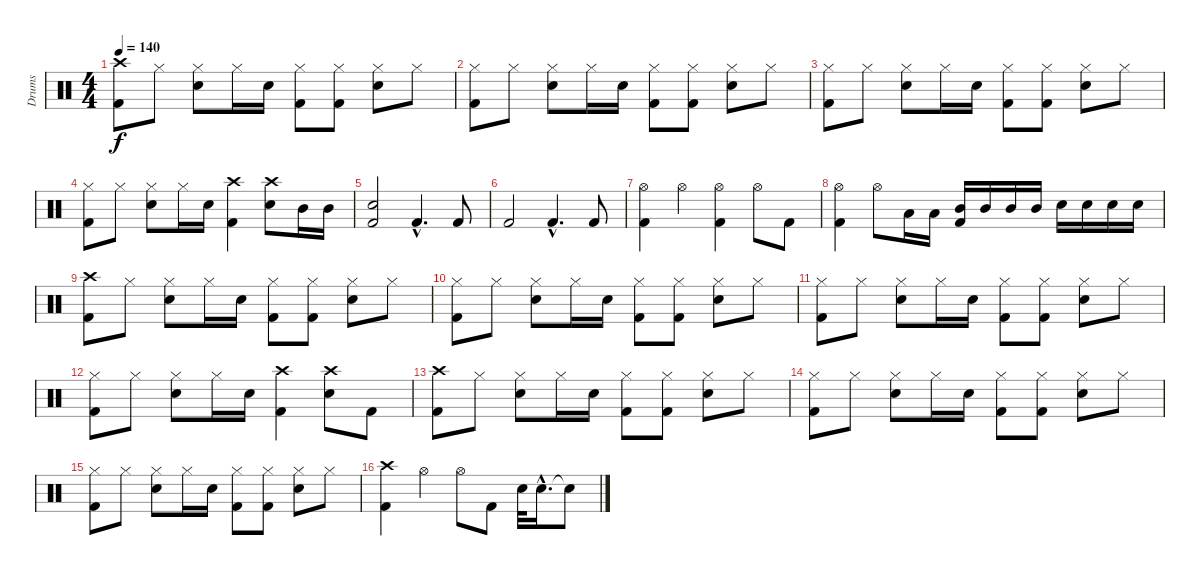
\track ("Drums" "Drums") {instrument percussion}
\staff {score}
\articulation defaults
\ts (4 4)
\tempo 140
\clef neutral
\ks c
("Crash high (hit)" "Kick (hit) 2").8{dy f} "Hi-Hat (closed)".8 ("Hi-Hat (closed)" "Snare (hit) 2").8 "Hi-Hat (closed)".16 "Snare (hit) 2".16 ("Hi-Hat (closed)" "Kick (hit) 2").8 ("Hi-Hat (closed)" "Kick (hit) 2").8 ("Hi-Hat (closed)" "Snare (hit) 2").8 "Hi-Hat (closed)".8 |
("Hi-Hat (closed)" "Kick (hit) 2").8 "Hi-Hat (closed)".8 ("Hi-Hat (closed)" "Snare (hit) 2").8 "Hi-Hat (closed)".16 "Snare (hit) 2".16 ("Hi-Hat (closed)" "Kick (hit) 2").8 ("Hi-Hat (closed)" "Kick (hit) 2").8 ("Hi-Hat (closed)" "Snare (hit) 2").8 "Hi-Hat (closed)".8 |
("Hi-Hat (closed)" "Kick (hit) 2").8 "Hi-Hat (closed)".8 ("Hi-Hat (closed)" "Snare (hit) 2").8 "Hi-Hat (closed)".16 "Snare (hit) 2".16 ("Hi-Hat (closed)" "Kick (hit) 2").8 ("Hi-Hat (closed)" "Kick (hit) 2").8 ("Hi-Hat (closed)" "Snare (hit) 2").8 "Hi-Hat (closed)".8 |
("Hi-Hat (closed)" "Kick (hit) 2").8 "Hi-Hat (closed)".8 ("Hi-Hat (closed)" "Snare (hit) 2").8 "Hi-Hat (closed)".16 "Snare (hit) 2".16 ("Crash high (hit)" "Kick (hit) 2").4 ("Crash high (hit)" "Snare (hit) 2").8 "Mid Tom (hit)".16 "Mid Tom (hit)".16 |
("Snare (hit) 2" "Kick (hit) 2").2 "Kick (hit) 2"{hac}.4{d} "Kick (hit) 2".8 |
"Kick (hit) 2".2 "Kick (hit) 2"{hac}.4{d} "Kick (hit) 2".8 |
("Hi-Hat (open)" "Kick (hit) 2").4 "Hi-Hat (open)".4 ("Hi-Hat (open)" "Kick (hit) 2").4 "Hi-Hat (open)".8 "Kick (hit) 2".8 |
("Hi-Hat (open)" "Kick (hit) 2").4 "Hi-Hat (open)".8 "Low Tom (hit)".16 "Low Tom (hit)".16 ("Mid Tom (hit)" "Kick (hit) 2").16 "Mid Tom (hit)".16 "Mid Tom (hit)".16 "Mid Tom (hit)".16 "Snare (hit) 2".16 "Snare (hit) 2".16 "Snare (hit) 2".16 "Snare (hit) 2".16 |
("Crash high (hit)" "Kick (hit) 2").8 "Hi-Hat (closed)".8 ("Hi-Hat (closed)" "Snare (hit) 2").8 "Hi-Hat (closed)".16 "Snare (hit) 2".16 ("Hi-Hat (closed)" "Kick (hit) 2").8 ("Hi-Hat (closed)" "Kick (hit) 2").8 ("Hi-Hat (closed)" "Snare (hit) 2").8 "Hi-Hat (closed)".8 |
("Hi-Hat (closed)" "Kick (hit) 2").8 "Hi-Hat (closed)".8 ("Hi-Hat (closed)" "Snare (hit) 2").8 "Hi-Hat (closed)".16 "Snare (hit) 2".16 ("Hi-Hat (closed)" "Kick (hit) 2").8 ("Hi-Hat (closed)" "Kick (hit) 2").8 ("Hi-Hat (closed)" "Snare (hit) 2").8 "Hi-Hat (closed)".8 |
("Hi-Hat (closed)" "Kick (hit) 2").8 "Hi-Hat (closed)".8 ("Hi-Hat (closed)" "Snare (hit) 2").8 "Hi-Hat (closed)".16 "Snare (hit) 2".16 ("Hi-Hat (closed)" "Kick (hit) 2").8 ("Hi-Hat (closed)" "Kick (hit) 2").8 ("Hi-Hat (closed)" "Snare (hit) 2").8 "Hi-Hat (closed)".8 |
("Hi-Hat (closed)" "Kick (hit) 2").8 "Hi-Hat (closed)".8 ("Hi-Hat (closed)" "Snare (hit) 2").8 "Hi-Hat (closed)".16 "Snare (hit) 2".16 ("Crash high (hit)" "Kick (hit) 2").4 ("Crash high (hit)" "Snare (hit) 2").8 "Kick (hit) 2".8 |
("Crash high (hit)" "Kick (hit) 2").8 "Hi-Hat (closed)".8 ("Hi-Hat (closed)" "Snare (hit) 2").8 "Hi-Hat (closed)".16 "Snare (hit) 2".16 ("Hi-Hat (closed)" "Kick (hit) 2").8 ("Hi-Hat (closed)" "Kick (hit) 2").8 ("Hi-Hat (closed)" "Snare (hit) 2").8 "Hi-Hat (closed)".8 |
("Hi-Hat (closed)" "Kick (hit) 2").8 "Hi-Hat (closed)".8 ("Hi-Hat (closed)" "Snare (hit) 2").8 "Hi-Hat (closed)".16 "Snare (hit) 2".16 ("Hi-Hat (closed)" "Kick (hit) 2").8 ("Hi-Hat (closed)" "Kick (hit) 2").8 ("Hi-Hat (closed)" "Snare (hit) 2").8 "Hi-Hat (closed)".8 |
("Hi-Hat (closed)" "Kick (hit) 2").8 "Hi-Hat (closed)".8 ("Hi-Hat (closed)" "Snare (hit) 2").8 "Hi-Hat (closed)".16 "Snare (hit) 2".16 ("Hi-Hat (closed)" "Kick (hit) 2").8 ("Hi-Hat (closed)" "Kick (hit) 2").8 ("Hi-Hat (closed)" "Snare (hit) 2").8 "Hi-Hat (closed)".8 |
("Crash high (hit)" "Kick (hit) 2").4 "Hi-Hat (open)".4 "Hi-Hat (open)".8 "Kick (hit) 2".8 "Snare (hit) 2".32 "Snare (hit) 2"{hac}.16{d} "Snare (hit)"{t}.8
